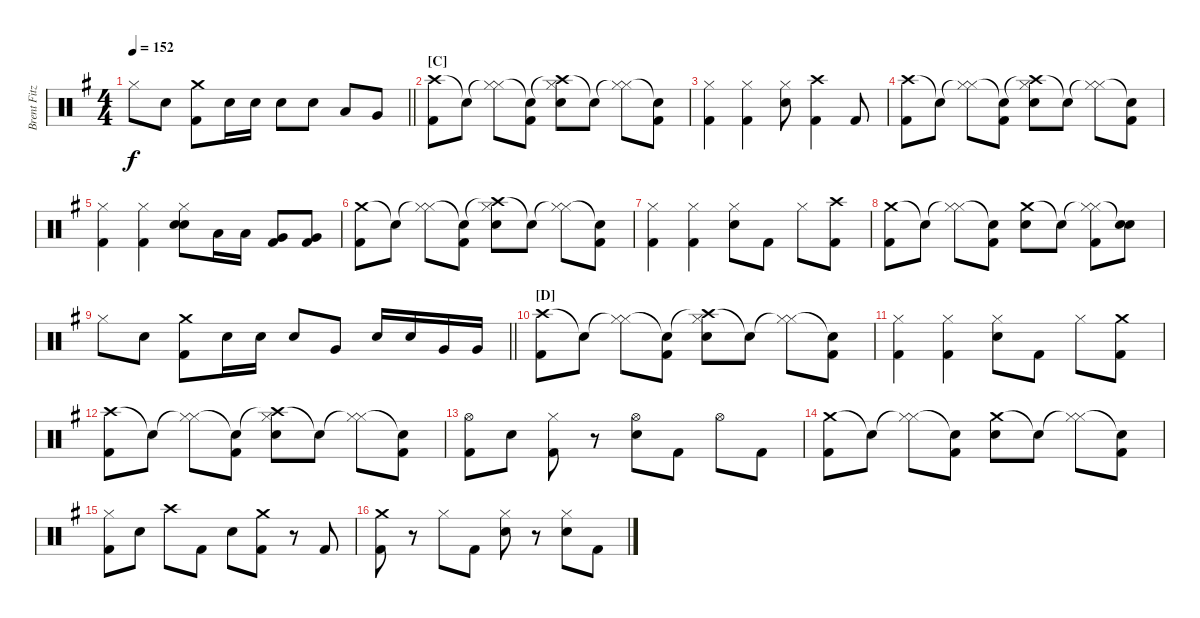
\track ("Brent Fitz" "Brent Fitz") {instrument percussion}
\staff {score}
\articulation defaults
\ts (4 4)
\tempo 152
\clef neutral
\barLineRight lightlight
\ks eminor "Hi-Hat (closed)".8{dy f} "Snare (hit) 2".8
("Crash medium (hit)" "Kick (hit) 2").8 "Snare (hit) 2".16 "Snare (hit) 2".16 "Snare (hit) 2".8 "Snare (hit) 2".8 "Low Tom (hit)".8 "Very Low Tom (hit)".8 |
\section ("" "[C]")
("Crash high (hit)" "Kick (hit) 2").8 "Snare (hit)"{t}.8 ("Hi-Hat (closed)"{t} "Hi-Hat (closed)").8 ("Snare (hit)"{t} "Kick (hit) 2").8 ("Crash high (hit)"{t} "Hi-Hat (closed)" "Snare (hit) 2").8 "Snare (hit)"{t}.8 ("Hi-Hat (closed)"{t} "Hi-Hat (closed)").8 ("Snare (hit)"{t} "Kick (hit) 2").8 |
("Hi-Hat (closed)" "Kick (hit) 2").4 ("Hi-Hat (closed)" "Kick (hit) 2").4 ("Hi-Hat (closed)" "Snare (hit) 2").8 ("Crash high (hit)" "Kick (hit) 2").4 "Kick (hit) 2".8 |
("Crash high (hit)" "Kick (hit) 2").8 "Snare (hit)"{t}.8 ("Hi-Hat (closed)"{t} "Hi-Hat (closed)").8 ("Snare (hit)"{t} "Kick (hit) 2").8 ("Crash high (hit)"{t} "Hi-Hat (closed)" "Snare (hit) 2").8 "Snare (hit)"{t}.8 ("Hi-Hat (closed)"{t} "Hi-Hat (closed)").8 ("Snare (hit)"{t} "Kick (hit) 2").8 |
("Hi-Hat (closed)" "Kick (hit) 2").4 ("Hi-Hat (closed)" "Kick (hit) 2").4 ("Hi-Hat (closed)" "Snare (hit) 2" "Snare (hit) 2").8 "Low Tom (hit)".16 "Low Tom (hit)".16 ("Very Low Tom (hit)" "Kick (hit) 2").8 ("Very Low Tom (hit)" "Kick (hit) 2").8 |
("Crash medium (hit)" "Kick (hit) 2").8 "Snare (hit)"{t}.8 ("Hi-Hat (closed)"{t} "Hi-Hat (closed)").8 ("Snare (hit)"{t} "Kick (hit) 2").8 ("Crash high (hit)"{t} "Hi-Hat (closed)" "Snare (hit) 2").8 "Snare (hit)"{t}.8 ("Hi-Hat (closed)"{t} "Hi-Hat (closed)").8 ("Snare (hit)"{t} "Kick (hit) 2").8 |
("Hi-Hat (closed)" "Kick (hit) 2").4 ("Hi-Hat (closed)" "Kick (hit) 2").4 ("Hi-Hat (closed)" "Snare (hit) 2").8 "Kick (hit) 2".8 "Hi-Hat (closed)".8 ("Crash high (hit)" "Kick (hit) 2").8 |
("Crash medium (hit)" "Kick (hit) 2").8 "Snare (hit)"{t}.8 ("Hi-Hat (closed)"{t} "Hi-Hat (closed)").8 ("Snare (hit)"{t} "Kick (hit) 2").8 ("Crash medium (hit)" "Snare (hit) 2").8 "Snare (hit)"{t}.8 ("Hi-Hat (closed)"{t} "Hi-Hat (closed)" "Kick (hit) 2").8 ("Snare (hit)"{t} "Snare (hit) 2").8 |
\barLineRight lightlight "Hi-Hat (closed)".8 "Snare (hit) 2".8
("Crash medium (hit)" "Kick (hit) 2").8 "Snare (hit) 2".16 "Snare (hit) 2".16 "Snare (hit) 2".8 "Very Low Tom (hit)".8 "Snare (hit) 2".16 "Snare (hit) 2".16 "Very Low Tom (hit)".16 "Very Low Tom (hit)".16 |
\section ("" "[D]")
("Crash high (hit)" "Kick (hit) 2").8 "Snare (hit)"{t}.8 ("Hi-Hat (closed)"{t} "Hi-Hat (closed)").8 ("Snare (hit)"{t} "Kick (hit) 2").8 ("Crash high (hit)"{t} "Hi-Hat (closed)" "Snare (hit) 2").8 "Snare (hit)"{t}.8 ("Hi-Hat (closed)"{t} "Hi-Hat (closed)").8 ("Snare (hit)"{t} "Kick (hit) 2").8 |
("Hi-Hat (closed)" "Kick (hit) 2").4 ("Hi-Hat (closed)" "Kick (hit) 2").4 ("Hi-Hat (closed)" "Snare (hit) 2").8 "Kick (hit) 2".8 "Hi-Hat (closed)".8 ("Crash medium (hit)" "Kick (hit) 2").8 |
("Crash high (hit)" "Kick (hit) 2").8 "Snare (hit)"{t}.8 ("Hi-Hat (closed)"{t} "Hi-Hat (closed)").8 ("Snare (hit)"{t} "Kick (hit) 2").8 ("Crash high (hit)"{t} "Hi-Hat (closed)" "Snare (hit) 2").8 "Snare (hit)"{t}.8 ("Hi-Hat (closed)"{t} "Hi-Hat (closed)").8 ("Snare (hit)"{t} "Kick (hit) 2").8 |
("Hi-Hat (open)" "Kick (hit) 2").8 "Snare (hit) 2".8 ("Hi-Hat (closed)" "Kick (hit) 2").8 r.8 ("Hi-Hat (open)" "Snare (hit) 2").8 "Kick (hit) 2".8 "Hi-Hat (open)".8 "Kick (hit) 2".8 |
("Crash medium (hit)" "Kick (hit) 2").8 "Snare (hit)"{t}.8 ("Hi-Hat (closed)"{t} "Hi-Hat (closed)").8 ("Snare (hit)"{t} "Kick (hit) 2").8 ("Crash medium (hit)" "Snare (hit) 2").8 "Snare (hit)"{t}.8 ("Hi-Hat (closed)"{t} "Hi-Hat (closed)").8 ("Snare (hit)"{t} "Kick (hit) 2").8 |
("Hi-Hat (closed)" "Kick (hit) 2").8 "Snare (hit) 2".8 "Crash high (hit)".8 "Kick (hit) 2".8 "Snare (hit) 2".8 ("Crash medium (hit)" "Kick (hit) 2").8 r.8 "Kick (hit) 2".8 |
("Crash medium (hit)" "Kick (hit) 2").8 r.8 "Hi-Hat (closed)".8 "Kick (hit) 2".8 ("Hi-Hat (closed)" "Snare (hit) 2").8 r.8 ("Hi-Hat (closed)" "Snare (hit) 2").8 "Kick (hit) 2".8
